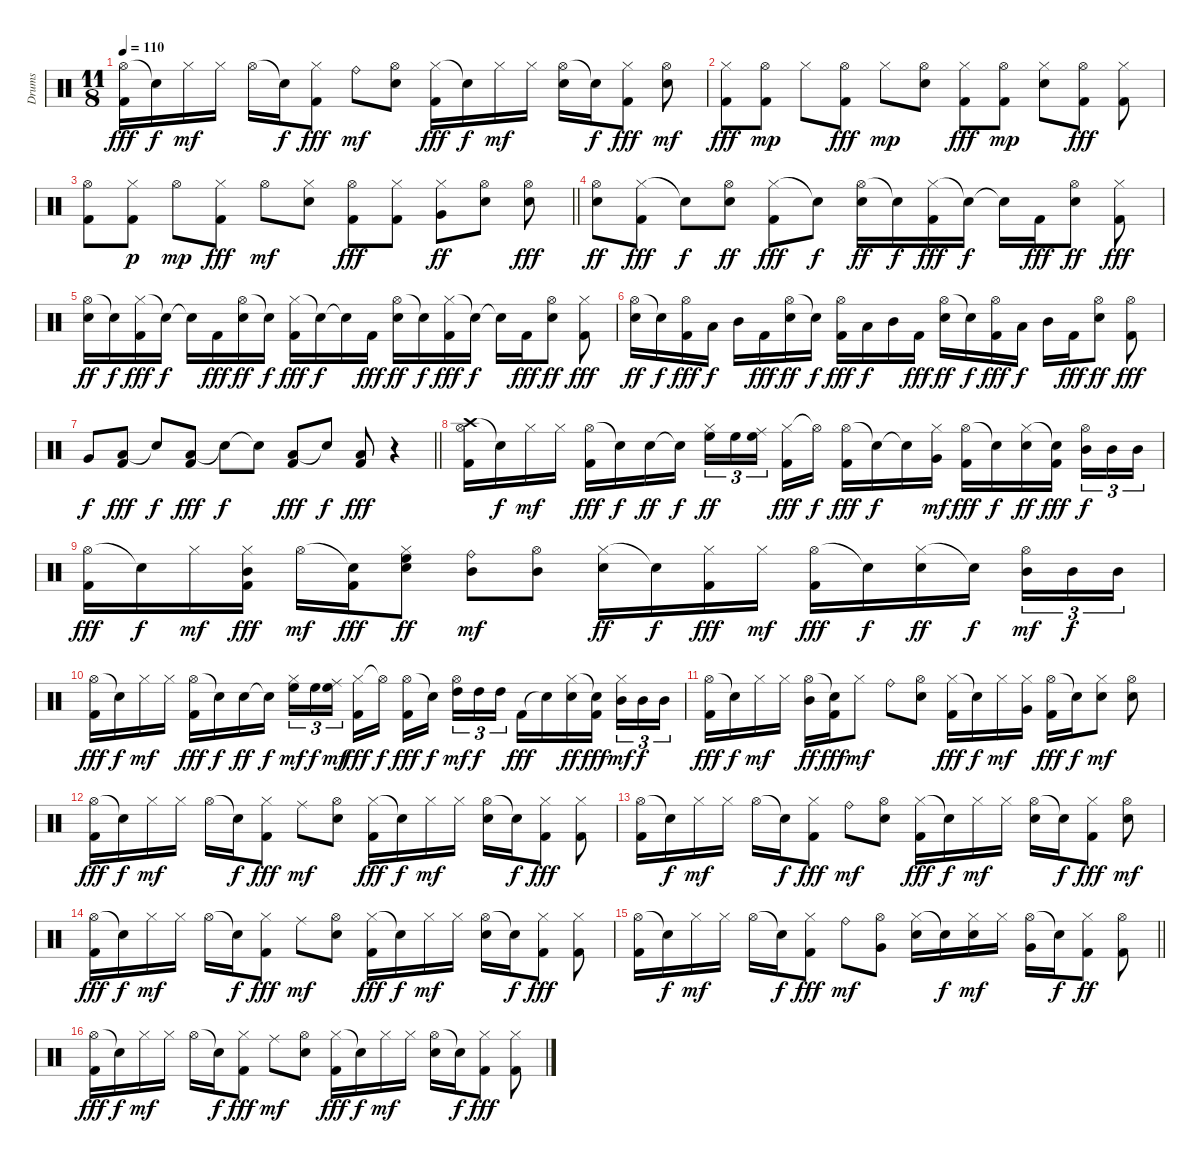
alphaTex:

\track ("Drums" "Drums") {instrument percussion}
\staff {score}
\articulation defaults
\ts (11 8)
\tempo 110
\clef neutral
\ks c
("Hi-Hat (open)" "Kick (hit) 2").16{dy fff} "Snare (hit)"{t}.16{dy f} "Hi-Hat (closed)".16{dy mf} "Hi-Hat (closed)".16 "Hi-Hat (open)".16 "Snare (hit)"{t}.16{dy f} ("Hi-Hat (closed)" "Kick (hit) 2").8{dy fff} "Ride (bell)".8{dy mf} ("Hi-Hat (open)" "Snare (hit) 2").8 ("Hi-Hat (closed)" "Kick (hit) 2").16{dy fff} "Snare (hit)"{t}.16{dy f} "Hi-Hat (closed)".16{dy mf} "Hi-Hat (closed)".16 ("Hi-Hat (open)" "Snare (hit) 2").16 "Snare (hit)"{t}.16{dy f} ("Hi-Hat (closed)" "Kick (hit) 2").8{dy fff} ("Hi-Hat (open)" "Snare (hit) 2").8{dy mf} |
("Hi-Hat (closed)" "Kick (hit) 2").8{dy fff} ("Hi-Hat (open)" "Kick (hit) 2").8{dy mp} "Hi-Hat (closed)".8 ("Hi-Hat (open)" "Kick (hit) 2").8{dy fff} "Hi-Hat (closed)".8{dy mp} ("Hi-Hat (open)" "Snare (hit) 2").8 ("Hi-Hat (closed)" "Kick (hit) 2").8{dy fff} ("Hi-Hat (open)" "Kick (hit) 2").8{dy mp} ("Hi-Hat (closed)" "Snare (hit) 2").8 ("Hi-Hat (open)" "Kick (hit) 2").8{dy fff} ("Hi-Hat (closed)" "Kick (hit) 2").8 |
\barLineRight lightlight
("Hi-Hat (open)" "Kick (hit) 2").8 ("Hi-Hat (closed)" "Kick (hit) 2").8{dy p} "Hi-Hat (open)".8{dy mp} ("Hi-Hat (closed)" "Kick (hit) 2").8{dy fff} "Hi-Hat (open)".8{dy mf} ("Hi-Hat (closed)" "Snare (hit) 2").8 ("Hi-Hat (open)" "Kick (hit) 2").8{dy fff} ("Hi-Hat (closed)" "Kick (hit) 2").8 ("Hi-Hat (closed)" "Very Low Tom (hit)").8{dy ff} ("Hi-Hat (open)" "Snare (hit) 2").8 ("Hi-Hat (open)" "Snare (hit) 2").8{dy fff} |
\section ("" "")
("Hi-Hat (open)" "Snare (hit) 2").8{dy ff} ("Hi-Hat (closed)" "Kick (hit) 2").8{dy fff} "Snare (hit)"{t}.8{dy f} ("Hi-Hat (open)" "Snare (hit) 2").8{dy ff} ("Hi-Hat (closed)" "Kick (hit) 2").8{dy fff} "Snare (hit)"{t}.8{dy f} ("Hi-Hat (open)" "Snare (hit) 2").16{dy ff} "Snare (hit)"{t}.16{dy f} ("Hi-Hat (closed)" "Kick (hit) 2").16{dy fff} "Snare (hit)"{t}.16{dy f} "Snare (hit)"{t}.16 "Kick (hit) 2".16{dy fff} ("Hi-Hat (open)" "Snare (hit) 2").8{dy ff} ("Hi-Hat (closed)" "Kick (hit) 2").8{dy fff} |
("Hi-Hat (open)" "Snare (hit) 2").16{dy ff} "Snare (hit)"{t}.16{dy f} ("Hi-Hat (closed)" "Kick (hit) 2").16{dy fff} "Snare (hit)"{t}.16{dy f} "Snare (hit)"{t}.16 "Kick (hit) 2".16{dy fff} ("Hi-Hat (open)" "Snare (hit) 2").16{dy ff} "Snare (hit)"{t}.16{dy f} ("Hi-Hat (closed)" "Kick (hit) 2").16{dy fff} "Snare (hit)"{t}.16{dy f} "Snare (hit)"{t}.16 "Kick (hit) 2".16{dy fff} ("Hi-Hat (open)" "Snare (hit) 2").16{dy ff} "Snare (hit)"{t}.16{dy f} ("Hi-Hat (closed)" "Kick (hit) 2").16{dy fff} "Snare (hit)"{t}.16{dy f} "Snare (hit)"{t}.16 "Kick (hit) 2".16{dy fff} ("Hi-Hat (open)" "Snare (hit) 2").8{dy ff} ("Hi-Hat (closed)" "Kick (hit) 2").8{dy fff} |
("Hi-Hat (open)" "Snare (hit) 2").16{dy ff} "Snare (hit)"{t}.16{dy f} ("Hi-Hat (open)" "Kick (hit) 2").16{dy fff} "Low Tom (hit)".16{dy f} "Mid Tom (hit)".16 "Kick (hit) 2".16{dy fff} ("Hi-Hat (open)" "Snare (hit) 2").16{dy ff} "Snare (hit)"{t}.16{dy f} ("Hi-Hat (open)" "Kick (hit) 2").16{dy fff} "Low Tom (hit)".16{dy f} "Mid Tom (hit)".16 "Kick (hit) 2".16{dy fff} ("Hi-Hat (open)" "Snare (hit) 2").16{dy ff} "Snare (hit)"{t}.16{dy f} ("Hi-Hat (open)" "Kick (hit) 2").16{dy fff} "Low Tom (hit)".16{dy f} "Mid Tom (hit)".16 "Kick (hit) 2".16{dy fff} ("Hi-Hat (open)" "Snare (hit) 2").8{dy ff} ("Hi-Hat (open)" "Kick (hit) 2").8{dy fff} |
\barLineRight lightlight "Very Low Tom (hit)".8{dy f}
("Low Tom (hit)" "Kick (hit) 2").8{dy fff} "Snare (hit)"{t}.8{dy f} ("Low Tom (hit)" "Kick (hit) 2").8{dy fff} "Snare (hit)"{t}.8{dy f} "Snare (hit)"{t}.8 ("Low Tom (hit)" "Kick (hit) 2").8{dy fff} "Snare (hit)"{t}.8{dy f} ("Low Tom (hit)" "Kick (hit) 2").8{dy fff} r.4 |
\section ("" "")
("Crash high (hit)" "Hi-Hat (open)" "Kick (hit) 2").16 "Snare (hit)"{t}.16{dy f} "Hi-Hat (closed)".16{dy mf} "Hi-Hat (closed)".16 ("Hi-Hat (open)" "Kick (hit) 2").16{dy fff} "Snare (hit)"{t}.16{dy f} "Snare (hit) 2".16{dy ff} "Snare (hit)"{t}.16{dy f} ("Hi-Hat (closed)" "High Floor Tom (hit)").16{tu (3 2) dy ff} "High Floor Tom (hit)".16{tu (3 2)} ("Ride (middle)" "High Floor Tom (hit)").16{tu (3 2)} ("Hi-Hat (closed)" "Kick (hit) 2").16{dy fff} "Hi-Hat (open)"{t}.16{dy f} ("Hi-Hat (open)" "Kick (hit) 2").16{dy fff} "Snare (hit)"{t}.16{dy f} "Snare (hit)"{t}.16 ("Hi-Hat (closed)" "Very Low Tom (hit)").16{dy mf} ("Hi-Hat (open)" "Kick (hit) 2").16{dy fff} "Snare (hit)"{t}.16{dy f} ("Hi-Hat (closed)" "Snare (hit) 2").16{dy ff} ("Snare (hit)"{t} "Kick (hit) 2").16{dy fff} ("Hi-Hat (open)" "Mid Tom (hit)").16{tu (3 2) dy f} "Mid Tom (hit)".16{tu (3 2)} "Mid Tom (hit)".16{tu (3 2)} |
("Hi-Hat (open)" "Kick (hit) 2").16{dy fff} "Snare (hit)"{t}.16{dy f} "Hi-Hat (closed)".16{dy mf} ("Hi-Hat (closed)" "Mid Tom (hit)" "Kick (hit) 2").16{dy fff} "Hi-Hat (open)".16{dy mf} ("Snare (hit)"{t} "Kick (hit) 2").16{dy fff} ("Hi-Hat (closed)" "Snare (hit) 2" "High Floor Tom (hit)").8{dy ff} ("Ride (bell)" "Mid Tom (hit)").8{dy mf} ("Hi-Hat (open)" "Mid Tom (hit)").8 ("Hi-Hat (closed)" "Snare (hit) 2").16{dy ff} "Snare (hit)"{t}.16{dy f} ("Hi-Hat (closed)" "Kick (hit) 2").16{dy fff} "Hi-Hat (closed)".16{dy mf} ("Hi-Hat (open)" "Kick (hit) 2").16{dy fff} "Snare (hit)"{t}.16{dy f} ("Hi-Hat (closed)" "Snare (hit) 2").16{dy ff} "Snare (hit)"{t}.16{dy f} ("Hi-Hat (open)" "Mid Tom (hit)").16{tu (3 2) dy mf} "Mid Tom (hit)".16{tu (3 2) dy f} "Mid Tom (hit)".16{tu (3 2)} |
("Hi-Hat (open)" "Kick (hit) 2").16{dy fff} "Snare (hit)"{t}.16{dy f} "Hi-Hat (closed)".16{dy mf} "Hi-Hat (closed)".16 ("Hi-Hat (open)" "Kick (hit) 2").16{dy fff} "Snare (hit)"{t}.16{dy f} "Snare (hit) 2".16{dy ff} "Snare (hit)"{t}.16{dy f} ("Hi-Hat (closed)" "High Floor Tom (hit)").16{tu (3 2) dy mf} "High Floor Tom (hit)".16{tu (3 2) dy f} ("Ride (middle)" "High Floor Tom (hit)").16{tu (3 2) dy mf} ("Hi-Hat (closed)" "Kick (hit) 2").16{dy fff} "Hi-Hat (open)"{t}.16{dy f} ("Hi-Hat (open)" "Kick (hit) 2").16{dy fff} "Snare (hit)"{t}.16{dy f} ("Hi-Hat (open)" "High Tom (hit)").16{tu (3 2) dy mf} "High Tom (hit)".16{tu (3 2) dy f} "High Tom (hit)".16{tu (3 2)} "Kick (hit) 2".16{dy fff} "Snare (hit)"{t}.16 ("Hi-Hat (closed)" "Snare (hit) 2").16{dy ff} ("Snare (hit)"{t} "Kick (hit) 2").16{dy fff} ("Hi-Hat (closed)" "Mid Tom (hit)").16{tu (3 2) dy mf} "Mid Tom (hit)".16{tu (3 2) dy f} "Mid Tom (hit)".16{tu (3 2)} |
("Hi-Hat (open)" "Kick (hit) 2").16{dy fff} "Snare (hit)"{t}.16{dy f} "Hi-Hat (closed)".16{dy mf} "Hi-Hat (closed)".16 ("Hi-Hat (open)" "Mid Tom (hit)").16{dy ff} ("Snare (hit)"{t} "Kick (hit) 2").16{dy fff} "Hi-Hat (closed)".8{dy mf} "Ride (bell)".8 ("Hi-Hat (open)" "Snare (hit) 2").8 ("Hi-Hat (closed)" "Kick (hit) 2").16{dy fff} "Snare (hit)"{t}.16{dy f} "Hi-Hat (closed)".16{dy mf} ("Hi-Hat (closed)" "Very Low Tom (hit)").16 ("Hi-Hat (open)" "Kick (hit) 2").16{dy fff} "Snare (hit)"{t}.16{dy f} ("Hi-Hat (closed)" "Snare (hit) 2").8{dy mf} ("Hi-Hat (open)" "Snare (hit) 2").8 |
("Hi-Hat (open)" "Kick (hit) 2").16{dy fff} "Snare (hit)"{t}.16{dy f} "Hi-Hat (closed)".16{dy mf} "Hi-Hat (closed)".16 "Hi-Hat (open)".16 "Snare (hit)"{t}.16{dy f} ("Hi-Hat (closed)" "Kick (hit) 2").8{dy fff} "Ride (middle)".8{dy mf} ("Hi-Hat (open)" "Snare (hit) 2").8 ("Hi-Hat (closed)" "Kick (hit) 2").16{dy fff} "Snare (hit)"{t}.16{dy f} "Hi-Hat (closed)".16{dy mf} "Hi-Hat (closed)".16 ("Hi-Hat (open)" "Snare (hit) 2").16 "Snare (hit)"{t}.16{dy f} ("Hi-Hat (closed)" "Kick (hit) 2").8{dy fff} ("Hi-Hat (closed)" "Kick (hit) 2").8 |
("Hi-Hat (open)" "Kick (hit) 2").16 "Snare (hit)"{t}.16{dy f} "Hi-Hat (closed)".16{dy mf} "Hi-Hat (closed)".16 "Hi-Hat (open)".16 "Snare (hit)"{t}.16{dy f} ("Hi-Hat (closed)" "Kick (hit) 2").8{dy fff} "Ride (bell)".8{dy mf} ("Hi-Hat (open)" "Snare (hit) 2").8 ("Hi-Hat (closed)" "Kick (hit) 2").16{dy fff} "Snare (hit)"{t}.16{dy f} "Hi-Hat (closed)".16{dy mf} "Hi-Hat (closed)".16 ("Hi-Hat (open)" "Snare (hit) 2").16 "Snare (hit)"{t}.16{dy f} ("Hi-Hat (closed)" "Kick (hit) 2").8{dy fff} ("Hi-Hat (open)" "Snare (hit) 2").8{dy mf} |
("Hi-Hat (open)" "Kick (hit) 2").16{dy fff} "Snare (hit)"{t}.16{dy f} "Hi-Hat (closed)".16{dy mf} "Hi-Hat (closed)".16 "Hi-Hat (open)".16 "Snare (hit)"{t}.16{dy f} ("Hi-Hat (closed)" "Kick (hit) 2").8{dy fff} "Ride (middle)".8{dy mf} ("Hi-Hat (open)" "Snare (hit) 2").8 ("Hi-Hat (closed)" "Kick (hit) 2").16{dy fff} "Snare (hit)"{t}.16{dy f} "Hi-Hat (closed)".16{dy mf} "Hi-Hat (closed)".16 ("Hi-Hat (open)" "Snare (hit) 2").16 "Snare (hit)"{t}.16{dy f} ("Hi-Hat (closed)" "Kick (hit) 2").8{dy fff} ("Hi-Hat (closed)" "Kick (hit) 2").8 |
\barLineRight lightlight
("Hi-Hat (open)" "Kick (hit) 2").16 "Snare (hit)"{t}.16{dy f} "Hi-Hat (closed)".16{dy mf} "Hi-Hat (closed)".16 "Hi-Hat (open)".16 "Snare (hit)"{t}.16{dy f} ("Hi-Hat (closed)" "Kick (hit) 2").8{dy fff} "Ride (bell)".8{dy mf} ("Hi-Hat (open)" "Very Low Tom (hit)").8 ("Hi-Hat (closed)" "Snare (hit) 2").16 "Snare (hit)"{t}.16{dy f} ("Hi-Hat (closed)" "Snare (hit) 2").16{dy mf} "Hi-Hat (closed)".16 ("Hi-Hat (open)" "Very Low Tom (hit)").16 "Snare (hit)"{t}.16{dy f} ("Hi-Hat (closed)" "Kick (hit) 2").8{dy ff} ("Hi-Hat (open)" "Kick (hit) 2").8 |
\section ("" "")
("Hi-Hat (open)" "Kick (hit) 2").16{dy fff} "Snare (hit)"{t}.16{dy f} "Hi-Hat (closed)".16{dy mf} "Hi-Hat (closed)".16 "Hi-Hat (open)".16 "Snare (hit)"{t}.16{dy f} ("Hi-Hat (closed)" "Kick (hit) 2").8{dy fff} "Ride (middle)".8{dy mf} ("Hi-Hat (open)" "Snare (hit) 2").8 ("Hi-Hat (closed)" "Kick (hit) 2").16{dy fff} "Snare (hit)"{t}.16{dy f} "Hi-Hat (closed)".16{dy mf} "Hi-Hat (closed)".16 ("Hi-Hat (open)" "Snare (hit) 2").16 "Snare (hit)"{t}.16{dy f} ("Hi-Hat (closed)" "Kick (hit) 2").8{dy fff} ("Hi-Hat (closed)" "Kick (hit) 2").8
